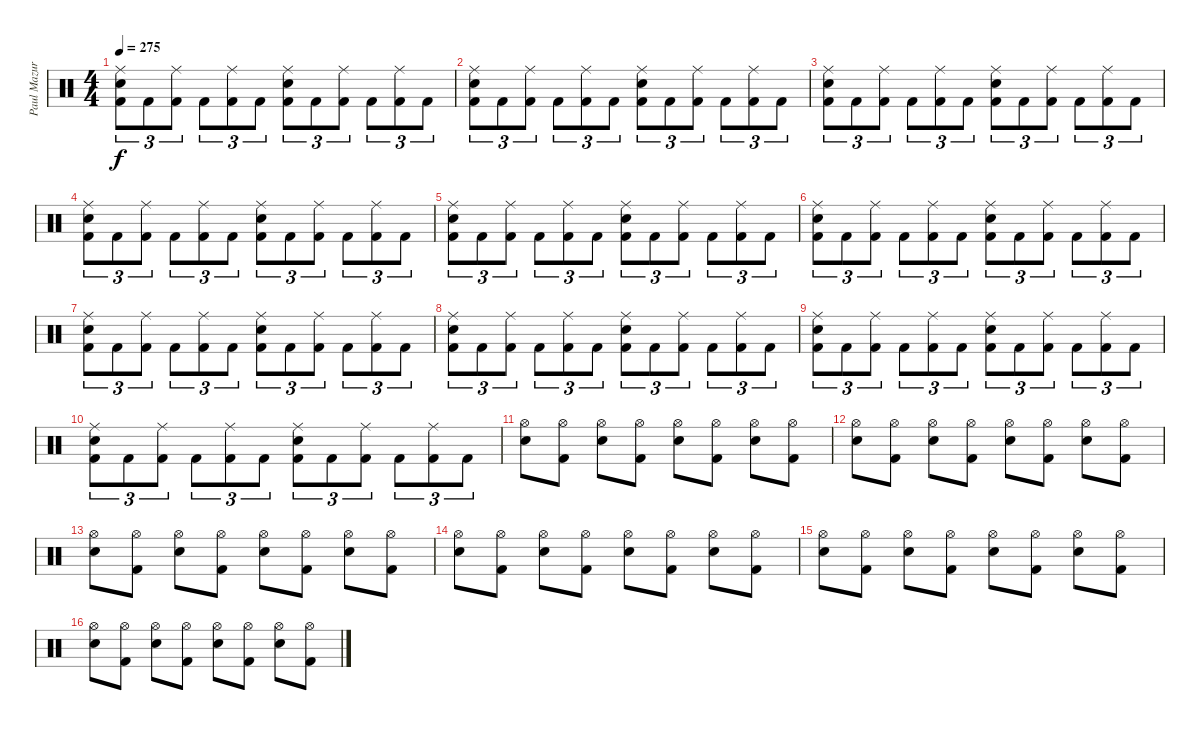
\track ("Paul Mazurkiewicz" "Paul Mazur") {instrument percussion}
\staff {score}
\articulation defaults
\ts (4 4)
\tempo 275
\clef neutral
\ks c
("Ride (middle)" "Snare (hit) 2" "Kick (hit) 2").8{tu (3 2) dy f} "Kick (hit) 2".8{tu (3 2)} ("Ride (middle)" "Kick (hit) 2").8{tu (3 2)} "Kick (hit) 2".8{tu (3 2)} ("Ride (middle)" "Kick (hit) 2").8{tu (3 2)} "Kick (hit) 2".8{tu (3 2)} ("Ride (middle)" "Snare (hit) 2" "Kick (hit) 2").8{tu (3 2)} "Kick (hit) 2".8{tu (3 2)} ("Ride (middle)" "Kick (hit) 2").8{tu (3 2)} "Kick (hit) 2".8{tu (3 2)} ("Ride (middle)" "Kick (hit) 2").8{tu (3 2)} "Kick (hit) 2".8{tu (3 2)} |
("Ride (middle)" "Snare (hit) 2" "Kick (hit) 2").8{tu (3 2)} "Kick (hit) 2".8{tu (3 2)} ("Ride (middle)" "Kick (hit) 2").8{tu (3 2)} "Kick (hit) 2".8{tu (3 2)} ("Ride (middle)" "Kick (hit) 2").8{tu (3 2)} "Kick (hit) 2".8{tu (3 2)} ("Ride (middle)" "Snare (hit) 2" "Kick (hit) 2").8{tu (3 2)} "Kick (hit) 2".8{tu (3 2)} ("Ride (middle)" "Kick (hit) 2").8{tu (3 2)} "Kick (hit) 2".8{tu (3 2)} ("Ride (middle)" "Kick (hit) 2").8{tu (3 2)} "Kick (hit) 2".8{tu (3 2)} |
("Ride (middle)" "Snare (hit) 2" "Kick (hit) 2").8{tu (3 2)} "Kick (hit) 2".8{tu (3 2)} ("Ride (middle)" "Kick (hit) 2").8{tu (3 2)} "Kick (hit) 2".8{tu (3 2)} ("Ride (middle)" "Kick (hit) 2").8{tu (3 2)} "Kick (hit) 2".8{tu (3 2)} ("Ride (middle)" "Snare (hit) 2" "Kick (hit) 2").8{tu (3 2)} "Kick (hit) 2".8{tu (3 2)} ("Ride (middle)" "Kick (hit) 2").8{tu (3 2)} "Kick (hit) 2".8{tu (3 2)} ("Ride (middle)" "Kick (hit) 2").8{tu (3 2)} "Kick (hit) 2".8{tu (3 2)} |
("Ride (middle)" "Snare (hit) 2" "Kick (hit) 2").8{tu (3 2)} "Kick (hit) 2".8{tu (3 2)} ("Ride (middle)" "Kick (hit) 2").8{tu (3 2)} "Kick (hit) 2".8{tu (3 2)} ("Ride (middle)" "Kick (hit) 2").8{tu (3 2)} "Kick (hit) 2".8{tu (3 2)} ("Ride (middle)" "Snare (hit) 2" "Kick (hit) 2").8{tu (3 2)} "Kick (hit) 2".8{tu (3 2)} ("Ride (middle)" "Kick (hit) 2").8{tu (3 2)} "Kick (hit) 2".8{tu (3 2)} ("Ride (middle)" "Kick (hit) 2").8{tu (3 2)} "Kick (hit) 2".8{tu (3 2)} |
("Ride (middle)" "Snare (hit) 2" "Kick (hit) 2").8{tu (3 2)} "Kick (hit) 2".8{tu (3 2)} ("Ride (middle)" "Kick (hit) 2").8{tu (3 2)} "Kick (hit) 2".8{tu (3 2)} ("Ride (middle)" "Kick (hit) 2").8{tu (3 2)} "Kick (hit) 2".8{tu (3 2)} ("Ride (middle)" "Snare (hit) 2" "Kick (hit) 2").8{tu (3 2)} "Kick (hit) 2".8{tu (3 2)} ("Ride (middle)" "Kick (hit) 2").8{tu (3 2)} "Kick (hit) 2".8{tu (3 2)} ("Ride (middle)" "Kick (hit) 2").8{tu (3 2)} "Kick (hit) 2".8{tu (3 2)} |
("Ride (middle)" "Snare (hit) 2" "Kick (hit) 2").8{tu (3 2)} "Kick (hit) 2".8{tu (3 2)} ("Ride (middle)" "Kick (hit) 2").8{tu (3 2)} "Kick (hit) 2".8{tu (3 2)} ("Ride (middle)" "Kick (hit) 2").8{tu (3 2)} "Kick (hit) 2".8{tu (3 2)} ("Ride (middle)" "Snare (hit) 2" "Kick (hit) 2").8{tu (3 2)} "Kick (hit) 2".8{tu (3 2)} ("Ride (middle)" "Kick (hit) 2").8{tu (3 2)} "Kick (hit) 2".8{tu (3 2)} ("Ride (middle)" "Kick (hit) 2").8{tu (3 2)} "Kick (hit) 2".8{tu (3 2)} |
("Ride (middle)" "Snare (hit) 2" "Kick (hit) 2").8{tu (3 2)} "Kick (hit) 2".8{tu (3 2)} ("Ride (middle)" "Kick (hit) 2").8{tu (3 2)} "Kick (hit) 2".8{tu (3 2)} ("Ride (middle)" "Kick (hit) 2").8{tu (3 2)} "Kick (hit) 2".8{tu (3 2)} ("Ride (middle)" "Snare (hit) 2" "Kick (hit) 2").8{tu (3 2)} "Kick (hit) 2".8{tu (3 2)} ("Ride (middle)" "Kick (hit) 2").8{tu (3 2)} "Kick (hit) 2".8{tu (3 2)} ("Ride (middle)" "Kick (hit) 2").8{tu (3 2)} "Kick (hit) 2".8{tu (3 2)} |
("Ride (middle)" "Snare (hit) 2" "Kick (hit) 2").8{tu (3 2)} "Kick (hit) 2".8{tu (3 2)} ("Ride (middle)" "Kick (hit) 2").8{tu (3 2)} "Kick (hit) 2".8{tu (3 2)} ("Ride (middle)" "Kick (hit) 2").8{tu (3 2)} "Kick (hit) 2".8{tu (3 2)} ("Ride (middle)" "Snare (hit) 2" "Kick (hit) 2").8{tu (3 2)} "Kick (hit) 2".8{tu (3 2)} ("Ride (middle)" "Kick (hit) 2").8{tu (3 2)} "Kick (hit) 2".8{tu (3 2)} ("Ride (middle)" "Kick (hit) 2").8{tu (3 2)} "Kick (hit) 2".8{tu (3 2)} |
("Ride (middle)" "Snare (hit) 2" "Kick (hit) 2").8{tu (3 2)} "Kick (hit) 2".8{tu (3 2)} ("Ride (middle)" "Kick (hit) 2").8{tu (3 2)} "Kick (hit) 2".8{tu (3 2)} ("Ride (middle)" "Kick (hit) 2").8{tu (3 2)} "Kick (hit) 2".8{tu (3 2)} ("Ride (middle)" "Snare (hit) 2" "Kick (hit) 2").8{tu (3 2)} "Kick (hit) 2".8{tu (3 2)} ("Ride (middle)" "Kick (hit) 2").8{tu (3 2)} "Kick (hit) 2".8{tu (3 2)} ("Ride (middle)" "Kick (hit) 2").8{tu (3 2)} "Kick (hit) 2".8{tu (3 2)} |
("Ride (middle)" "Snare (hit) 2" "Kick (hit) 2").8{tu (3 2)} "Kick (hit) 2".8{tu (3 2)} ("Ride (middle)" "Kick (hit) 2").8{tu (3 2)} "Kick (hit) 2".8{tu (3 2)} ("Ride (middle)" "Kick (hit) 2").8{tu (3 2)} "Kick (hit) 2".8{tu (3 2)} ("Ride (middle)" "Snare (hit) 2" "Kick (hit) 2").8{tu (3 2)} "Kick (hit) 2".8{tu (3 2)} ("Ride (middle)" "Kick (hit) 2").8{tu (3 2)} "Kick (hit) 2".8{tu (3 2)} ("Ride (middle)" "Kick (hit) 2").8{tu (3 2)} "Kick (hit) 2".8{tu (3 2)} |
("Hi-Hat (open)" "Snare (hit) 2").8 ("Hi-Hat (open)" "Kick (hit) 2").8 ("Hi-Hat (open)" "Snare (hit) 2").8 ("Hi-Hat (open)" "Kick (hit) 2").8 ("Hi-Hat (open)" "Snare (hit) 2").8 ("Hi-Hat (open)" "Kick (hit) 2").8 ("Hi-Hat (open)" "Snare (hit) 2").8 ("Hi-Hat (open)" "Kick (hit) 2").8 |
("Hi-Hat (open)" "Snare (hit) 2").8 ("Hi-Hat (open)" "Kick (hit) 2").8 ("Hi-Hat (open)" "Snare (hit) 2").8 ("Hi-Hat (open)" "Kick (hit) 2").8 ("Hi-Hat (open)" "Snare (hit) 2").8 ("Hi-Hat (open)" "Kick (hit) 2").8 ("Hi-Hat (open)" "Snare (hit) 2").8 ("Hi-Hat (open)" "Kick (hit) 2").8 |
("Hi-Hat (open)" "Snare (hit) 2").8 ("Hi-Hat (open)" "Kick (hit) 2").8 ("Hi-Hat (open)" "Snare (hit) 2").8 ("Hi-Hat (open)" "Kick (hit) 2").8 ("Hi-Hat (open)" "Snare (hit) 2").8 ("Hi-Hat (open)" "Kick (hit) 2").8 ("Hi-Hat (open)" "Snare (hit) 2").8 ("Hi-Hat (open)" "Kick (hit) 2").8 |
("Hi-Hat (open)" "Snare (hit) 2").8 ("Hi-Hat (open)" "Kick (hit) 2").8 ("Hi-Hat (open)" "Snare (hit) 2").8 ("Hi-Hat (open)" "Kick (hit) 2").8 ("Hi-Hat (open)" "Snare (hit) 2").8 ("Hi-Hat (open)" "Kick (hit) 2").8 ("Hi-Hat (open)" "Snare (hit) 2").8 ("Hi-Hat (open)" "Kick (hit) 2").8 |
("Hi-Hat (open)" "Snare (hit) 2").8 ("Hi-Hat (open)" "Kick (hit) 2").8 ("Hi-Hat (open)" "Snare (hit) 2").8 ("Hi-Hat (open)" "Kick (hit) 2").8 ("Hi-Hat (open)" "Snare (hit) 2").8 ("Hi-Hat (open)" "Kick (hit) 2").8 ("Hi-Hat (open)" "Snare (hit) 2").8 ("Hi-Hat (open)" "Kick (hit) 2").8 |
("Hi-Hat (open)" "Snare (hit) 2").8 ("Hi-Hat (open)" "Kick (hit) 2").8 ("Hi-Hat (open)" "Snare (hit) 2").8 ("Hi-Hat (open)" "Kick (hit) 2").8 ("Hi-Hat (open)" "Snare (hit) 2").8 ("Hi-Hat (open)" "Kick (hit) 2").8 ("Hi-Hat (open)" "Snare (hit) 2").8 ("Hi-Hat (open)" "Kick (hit) 2").8
